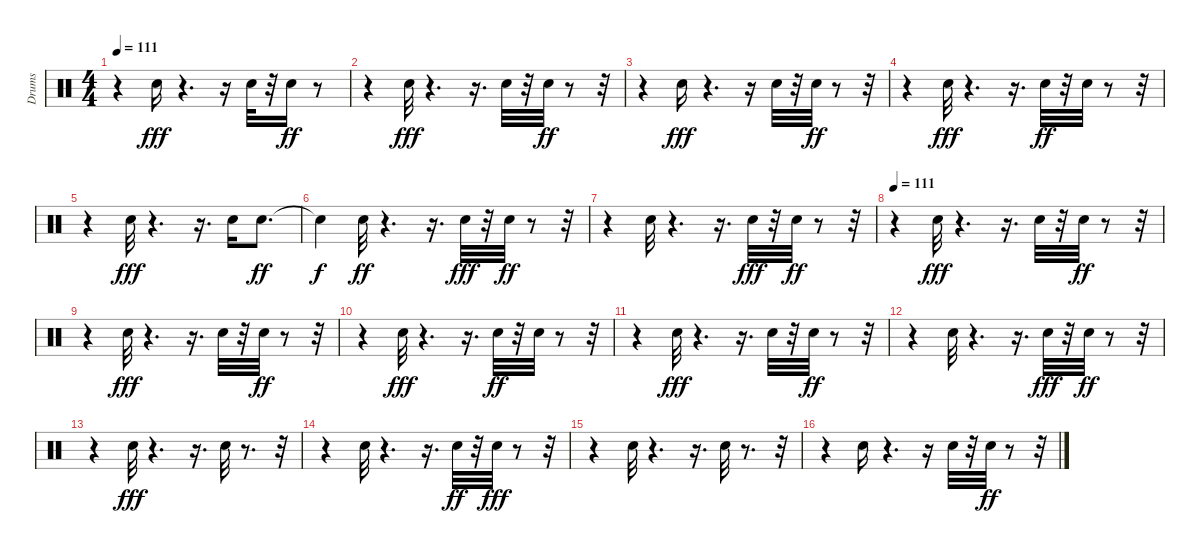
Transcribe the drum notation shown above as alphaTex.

\track ("Drums" "Drums") {instrument percussion}
\staff {score}
\articulation defaults
\ts (4 4)
\tempo 111
\clef neutral
\ks c
r.4{dy ff} "Electric Snare (hit)".16{dy fff} r.4{d} r.16 "Electric Snare (hit)".32 r.32 "Electric Snare (hit)".16{dy ff} r.8 |
r.4 "Electric Snare (hit)".32{dy fff} r.4{d} r.16{d} "Electric Snare (hit)".32 r.32 "Electric Snare (hit)".32{dy ff} r.8 r.32 |
r.4 "Electric Snare (hit)".16{dy fff} r.4{d} r.16 "Electric Snare (hit)".32 r.32 "Electric Snare (hit)".32{dy ff} r.8 r.32 |
r.4 "Electric Snare (hit)".32{dy fff} r.4{d} r.16{d} "Electric Snare (hit)".32{dy ff} r.32 "Electric Snare (hit)".32 r.8 r.32 |
r.4 "Electric Snare (hit)".32{dy fff} r.4{d} r.16{d} "Electric Snare (hit)".16 "Electric Snare (hit)".8{d dy ff} |
"Snare (hit)"{t}.4{dy f} "Electric Snare (hit)".32{dy ff} r.4{d} r.16{d} "Electric Snare (hit)".32{dy fff} r.32 "Electric Snare (hit)".32{dy ff} r.8 r.32 |
r.4 "Electric Snare (hit)".32 r.4{d} r.16{d} "Electric Snare (hit)".32{dy fff} r.32 "Electric Snare (hit)".32{dy ff} r.8 r.32 |
\tempo 111
r.4 "Electric Snare (hit)".32{dy fff} r.4{d} r.16{d} "Electric Snare (hit)".32 r.32 "Electric Snare (hit)".32{dy ff} r.8 r.32 |
r.4 "Electric Snare (hit)".32{dy fff} r.4{d} r.16{d} "Electric Snare (hit)".32 r.32 "Electric Snare (hit)".32{dy ff} r.8 r.32 |
r.4 "Electric Snare (hit)".32{dy fff} r.4{d} r.16{d} "Electric Snare (hit)".32{dy ff} r.32 "Electric Snare (hit)".32 r.8 r.32 |
r.4 "Electric Snare (hit)".32{dy fff} r.4{d} r.16{d} "Electric Snare (hit)".32 r.32 "Electric Snare (hit)".32{dy ff} r.8 r.32 |
r.4 "Electric Snare (hit)".32 r.4{d} r.16{d} "Electric Snare (hit)".32{dy fff} r.32 "Electric Snare (hit)".32{dy ff} r.8 r.32 |
r.4 "Electric Snare (hit)".32{dy fff} r.4{d} r.16{d} "Electric Snare (hit)".32 r.8{d} r.32 |
r.4 "Electric Snare (hit)".32 r.4{d} r.16{d} "Electric Snare (hit)".32{dy ff} r.32 "Electric Snare (hit)".32{dy fff} r.8 r.32 |
r.4 "Electric Snare (hit)".32 r.4{d} r.16{d} "Electric Snare (hit)".32 r.8{d} r.32 |
r.4 "Electric Snare (hit)".16 r.4{d} r.16 "Electric Snare (hit)".32 r.32 "Electric Snare (hit)".32{dy ff} r.8 r.32
